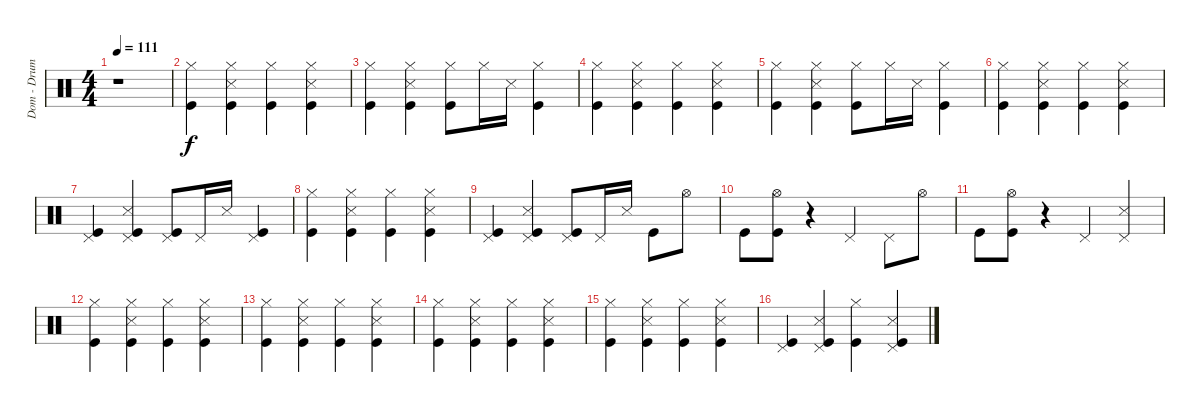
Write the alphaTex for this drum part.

\track ("Dom - Drums" "Dom - Drum") {instrument percussion}
\staff {score}
\articulation defaults
\ts (4 4)
\tempo 111
\clef neutral
\ks c
r.1{dy f} |
("Hi-Hat (closed)" "Kick (hit)").4 ("Hi-Hat (closed)" "Snare (side stick) 3" "Kick (hit)").4 ("Hi-Hat (closed)" "Kick (hit)").4 ("Hi-Hat (closed)" "Snare (side stick) 3" "Kick (hit)").4 |
("Hi-Hat (closed)" "Kick (hit)").4 ("Hi-Hat (closed)" "Snare (side stick) 3" "Kick (hit)").4 ("Hi-Hat (closed)" "Kick (hit)").8 "Hi-Hat (closed)".16 "Snare (side stick) 3".16 ("Hi-Hat (closed)" "Kick (hit)").4 |
("Hi-Hat (closed)" "Kick (hit)").4 ("Hi-Hat (closed)" "Snare (side stick) 3" "Kick (hit)").4 ("Hi-Hat (closed)" "Kick (hit)").4 ("Hi-Hat (closed)" "Snare (side stick) 3" "Kick (hit)").4 |
("Hi-Hat (closed)" "Kick (hit)").4 ("Hi-Hat (closed)" "Snare (side stick) 3" "Kick (hit)").4 ("Hi-Hat (closed)" "Kick (hit)").8 "Hi-Hat (closed)".16 "Snare (side stick) 3".16 ("Hi-Hat (closed)" "Kick (hit)").4 |
("Hi-Hat (closed)" "Kick (hit)").4 ("Hi-Hat (closed)" "Snare (side stick) 3" "Kick (hit)").4 ("Hi-Hat (closed)" "Kick (hit)").4 ("Hi-Hat (closed)" "Snare (side stick) 3" "Kick (hit)").4 |
("Pedal Hi-Hat (hit)" "Kick (hit)").4 ("Pedal Hi-Hat (hit)" "Snare (side stick) 3" "Kick (hit)").4 ("Pedal Hi-Hat (hit)" "Kick (hit)").8 "Pedal Hi-Hat (hit)".16 "Snare (side stick) 3".16 ("Pedal Hi-Hat (hit)" "Kick (hit)").4 |
("Hi-Hat (closed)" "Kick (hit)").4 ("Hi-Hat (closed)" "Snare (side stick) 3" "Kick (hit)").4 ("Hi-Hat (closed)" "Kick (hit)").4 ("Hi-Hat (closed)" "Snare (side stick) 3" "Kick (hit)").4 |
("Pedal Hi-Hat (hit)" "Kick (hit)").4 ("Pedal Hi-Hat (hit)" "Snare (side stick) 3" "Kick (hit)").4 ("Pedal Hi-Hat (hit)" "Kick (hit)").8 "Pedal Hi-Hat (hit)".16 "Snare (side stick) 3".16 "Kick (hit)".8 "Hi-Hat (open)".8 |
"Kick (hit)".8 ("Hi-Hat (open)" "Kick (hit)").8 r.4 "Pedal Hi-Hat (hit)".4 "Pedal Hi-Hat (hit)".8 "Hi-Hat (open)".8 |
"Kick (hit)".8 ("Hi-Hat (open)" "Kick (hit)").8 r.4 "Pedal Hi-Hat (hit)".4 ("Pedal Hi-Hat (hit)" "Snare (side stick) 3").4 |
("Hi-Hat (closed)" "Kick (hit)").4 ("Hi-Hat (closed)" "Snare (side stick) 3" "Kick (hit)").4 ("Hi-Hat (closed)" "Kick (hit)").4 ("Hi-Hat (closed)" "Snare (side stick) 3" "Kick (hit)").4 |
("Hi-Hat (closed)" "Kick (hit)").4 ("Hi-Hat (closed)" "Snare (side stick) 3" "Kick (hit)").4 ("Hi-Hat (closed)" "Kick (hit)").4 ("Hi-Hat (closed)" "Snare (side stick) 3" "Kick (hit)").4 |
("Hi-Hat (closed)" "Kick (hit)").4 ("Hi-Hat (closed)" "Snare (side stick) 3" "Kick (hit)").4 ("Hi-Hat (closed)" "Kick (hit)").4 ("Hi-Hat (closed)" "Snare (side stick) 3" "Kick (hit)").4 |
("Hi-Hat (closed)" "Kick (hit)").4 ("Hi-Hat (closed)" "Snare (side stick) 3" "Kick (hit)").4 ("Hi-Hat (closed)" "Kick (hit)").4 ("Hi-Hat (closed)" "Snare (side stick) 3" "Kick (hit)").4 |
("Pedal Hi-Hat (hit)" "Kick (hit)").4 ("Pedal Hi-Hat (hit)" "Snare (side stick) 3" "Kick (hit)").4 ("Hi-Hat (closed)" "Kick (hit)").4 ("Pedal Hi-Hat (hit)" "Snare (side stick) 3" "Kick (hit)").4
